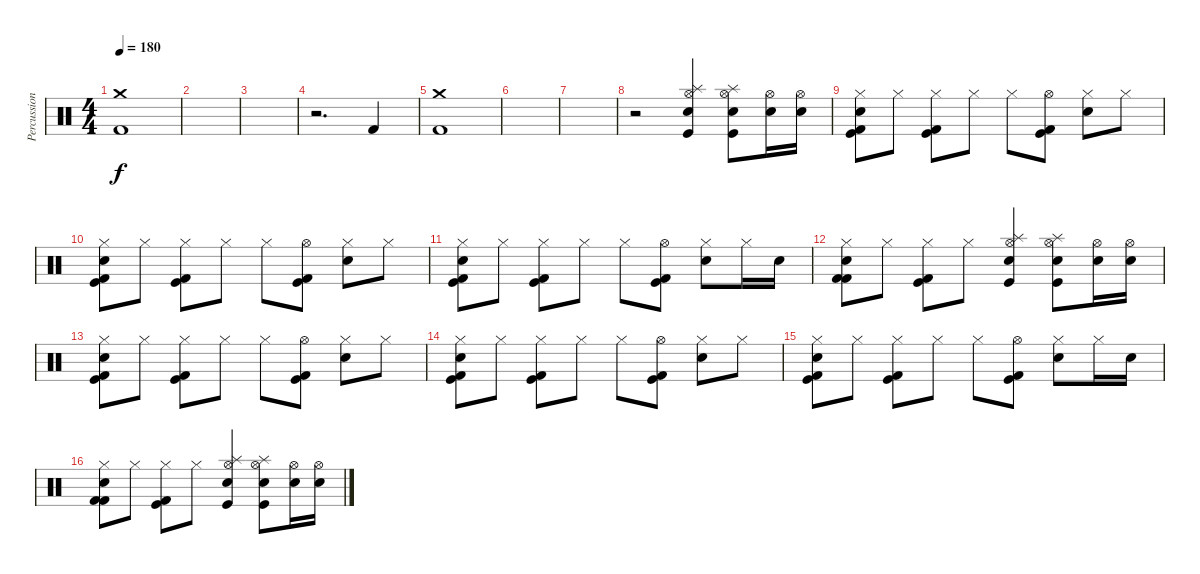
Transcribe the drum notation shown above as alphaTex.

\track ("Percussion" "Percussion") {instrument percussion}
\staff {score}
\articulation defaults
\ts (4 4)
\tempo 180
\clef neutral
\ks c
("Crash medium (hit)" "Kick (hit) 2").1{dy f} |
|
|
r.2{d} "Kick (hit) 2".4 |
("Crash medium (hit)" "Kick (hit) 2").1 |
|
|
r.2 ("Electric Snare (hit)" "Hi-Hat (open)" "Splash (hit)" "Kick (hit)").4 ("Electric Snare (hit)" "Hi-Hat (open)" "Splash (hit)" "Kick (hit)").8 ("Electric Snare (hit)" "Hi-Hat (open)").16 ("Electric Snare (hit)" "Hi-Hat (open)").16 |
("Hi-Hat (closed)" "Electric Snare (hit)" "Kick (hit) 2" "Kick (hit)").8 "Hi-Hat (closed)".8 ("Hi-Hat (closed)" "Kick (hit) 2" "Kick (hit)").8 "Hi-Hat (closed)".8 "Hi-Hat (closed)".8 ("Hi-Hat (open)" "Kick (hit) 2" "Kick (hit)").8 ("Hi-Hat (closed)" "Electric Snare (hit)").8 "Hi-Hat (closed)".8 |
("Hi-Hat (closed)" "Electric Snare (hit)" "Kick (hit) 2" "Kick (hit)").8 "Hi-Hat (closed)".8 ("Hi-Hat (closed)" "Kick (hit) 2" "Kick (hit)").8 "Hi-Hat (closed)".8 "Hi-Hat (closed)".8 ("Hi-Hat (open)" "Kick (hit) 2" "Kick (hit)").8 ("Hi-Hat (closed)" "Electric Snare (hit)").8 "Hi-Hat (closed)".8 |
("Hi-Hat (closed)" "Electric Snare (hit)" "Kick (hit) 2" "Kick (hit)").8 "Hi-Hat (closed)".8 ("Hi-Hat (closed)" "Kick (hit) 2" "Kick (hit)").8 "Hi-Hat (closed)".8 "Hi-Hat (closed)".8 ("Hi-Hat (open)" "Kick (hit) 2" "Kick (hit)").8 ("Hi-Hat (closed)" "Electric Snare (hit)").8 "Hi-Hat (closed)".16 "Electric Snare (hit)".16 |
("Hi-Hat (closed)" "Electric Snare (hit)" "Kick (hit) 2" "Kick (hit) 2").8 "Hi-Hat (closed)".8 ("Hi-Hat (closed)" "Kick (hit) 2" "Kick (hit)").8 "Hi-Hat (closed)".8 ("Electric Snare (hit)" "Hi-Hat (open)" "Splash (hit)" "Kick (hit)").4 ("Electric Snare (hit)" "Hi-Hat (open)" "Splash (hit)" "Kick (hit)").8 ("Electric Snare (hit)" "Hi-Hat (open)").16 ("Electric Snare (hit)" "Hi-Hat (open)").16 |
("Hi-Hat (closed)" "Electric Snare (hit)" "Kick (hit) 2" "Kick (hit)").8 "Hi-Hat (closed)".8 ("Hi-Hat (closed)" "Kick (hit) 2" "Kick (hit)").8 "Hi-Hat (closed)".8 "Hi-Hat (closed)".8 ("Hi-Hat (open)" "Kick (hit) 2" "Kick (hit)").8 ("Hi-Hat (closed)" "Electric Snare (hit)").8 "Hi-Hat (closed)".8 |
("Hi-Hat (closed)" "Electric Snare (hit)" "Kick (hit) 2" "Kick (hit)").8 "Hi-Hat (closed)".8 ("Hi-Hat (closed)" "Kick (hit) 2" "Kick (hit)").8 "Hi-Hat (closed)".8 "Hi-Hat (closed)".8 ("Hi-Hat (open)" "Kick (hit) 2" "Kick (hit)").8 ("Hi-Hat (closed)" "Electric Snare (hit)").8 "Hi-Hat (closed)".8 |
("Hi-Hat (closed)" "Electric Snare (hit)" "Kick (hit) 2" "Kick (hit)").8 "Hi-Hat (closed)".8 ("Hi-Hat (closed)" "Kick (hit) 2" "Kick (hit)").8 "Hi-Hat (closed)".8 "Hi-Hat (closed)".8 ("Hi-Hat (open)" "Kick (hit) 2" "Kick (hit)").8 ("Hi-Hat (closed)" "Electric Snare (hit)").8 "Hi-Hat (closed)".16 "Electric Snare (hit)".16 |
("Hi-Hat (closed)" "Electric Snare (hit)" "Kick (hit) 2" "Kick (hit) 2").8 "Hi-Hat (closed)".8 ("Hi-Hat (closed)" "Kick (hit) 2" "Kick (hit)").8 "Hi-Hat (closed)".8 ("Electric Snare (hit)" "Hi-Hat (open)" "Splash (hit)" "Kick (hit)").4 ("Electric Snare (hit)" "Hi-Hat (open)" "Splash (hit)" "Kick (hit)").8 ("Electric Snare (hit)" "Hi-Hat (open)").16 ("Electric Snare (hit)" "Hi-Hat (open)").16
